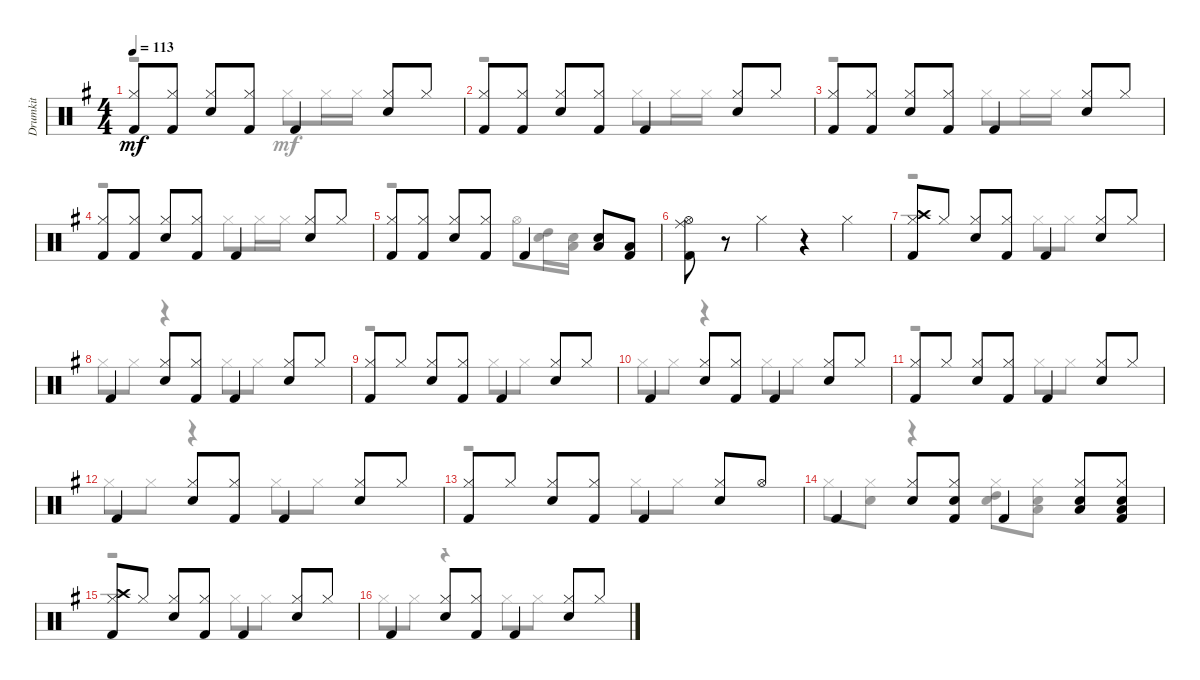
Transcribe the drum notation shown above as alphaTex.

\track ("Drumkit" "Drumkit") {instrument percussion}
\staff {score}
\articulation defaults
\voice
\ts (4 4)
\tempo 113
\clef neutral
\ks eminor
("Kick (hit) 2" "Hi-Hat (closed)").8{dy mf} ("Hi-Hat (closed)" "Kick (hit) 2").8 ("Hi-Hat (closed)" "Snare (hit) 2").8 ("Hi-Hat (closed)" "Kick (hit) 2").8 "Kick (hit) 2".4 ("Hi-Hat (closed)" "Snare (hit) 2").8 "Hi-Hat (closed)".8 |
("Hi-Hat (closed)" "Kick (hit) 2").8 ("Kick (hit) 2" "Hi-Hat (closed)").8 ("Snare (hit) 2" "Hi-Hat (closed)").8 ("Kick (hit) 2" "Hi-Hat (closed)").8 "Kick (hit) 2".4 ("Snare (hit) 2" "Hi-Hat (closed)").8 "Hi-Hat (closed)".8 |
("Kick (hit) 2" "Hi-Hat (closed)").8 ("Kick (hit) 2" "Hi-Hat (closed)").8 ("Snare (hit) 2" "Hi-Hat (closed)").8 ("Kick (hit) 2" "Hi-Hat (closed)").8 "Kick (hit) 2".4 ("Snare (hit) 2" "Hi-Hat (closed)").8 "Hi-Hat (closed)".8 |
("Hi-Hat (closed)" "Kick (hit) 2").8 ("Kick (hit) 2" "Hi-Hat (closed)").8 ("Hi-Hat (closed)" "Snare (hit) 2").8 ("Kick (hit) 2" "Hi-Hat (closed)").8 "Kick (hit) 2".4 ("Snare (hit) 2" "Hi-Hat (closed)").8 "Hi-Hat (closed)".8 |
("Hi-Hat (closed)" "Kick (hit) 2").8 ("Kick (hit) 2" "Hi-Hat (closed)").8 ("Hi-Hat (closed)" "Snare (hit) 2").8 ("Kick (hit) 2" "Hi-Hat (closed)").8 "Kick (hit) 2".4 ("Low Floor Tom (hit)" "Snare (hit) 2").8 ("Kick (hit) 2" "Low Tom (hit)").8 |
("Ride (middle)" "Kick (hit) 2" "Hi-Hat (open)").8 r.8 "Hi-Hat (closed)".4 r.4 "Hi-Hat (closed)".4 |
("Kick (hit) 2" "Hi-Hat (closed)" "Crash high (hit)").8 "Hi-Hat (closed)".8 ("Snare (hit) 2" "Hi-Hat (closed)").8 ("Hi-Hat (closed)" "Kick (hit) 2").8 "Kick (hit) 2".4 ("Hi-Hat (closed)" "Snare (hit) 2").8 "Hi-Hat (closed)".8 |
"Kick (hit) 2".4 ("Snare (hit) 2" "Hi-Hat (closed)").8 ("Hi-Hat (closed)" "Kick (hit) 2").8 "Kick (hit) 2".4 ("Snare (hit) 2" "Hi-Hat (closed)").8 "Hi-Hat (closed)".8 |
("Kick (hit) 2" "Hi-Hat (closed)").8 "Hi-Hat (closed)".8 ("Hi-Hat (closed)" "Snare (hit) 2").8 ("Kick (hit) 2" "Hi-Hat (closed)").8 "Kick (hit) 2".4 ("Snare (hit) 2" "Hi-Hat (closed)").8 "Hi-Hat (closed)".8 |
"Kick (hit) 2".4 ("Snare (hit) 2" "Hi-Hat (closed)").8 ("Hi-Hat (closed)" "Kick (hit) 2").8 "Kick (hit) 2".4 ("Snare (hit) 2" "Hi-Hat (closed)").8 "Hi-Hat (closed)".8 |
("Hi-Hat (closed)" "Kick (hit) 2").8 "Hi-Hat (closed)".8 ("Hi-Hat (closed)" "Snare (hit) 2").8 ("Kick (hit) 2" "Hi-Hat (closed)").8 "Kick (hit) 2".4 ("Snare (hit) 2" "Hi-Hat (closed)").8 "Hi-Hat (closed)".8 |
"Kick (hit) 2".4 ("Snare (hit) 2" "Hi-Hat (closed)").8 ("Hi-Hat (closed)" "Kick (hit) 2").8 "Kick (hit) 2".4 ("Snare (hit) 2" "Hi-Hat (closed)").8 "Hi-Hat (closed)".8 |
("Kick (hit) 2" "Hi-Hat (closed)").8 "Hi-Hat (closed)".8 ("Snare (hit) 2" "Hi-Hat (closed)").8 ("Kick (hit) 2" "Hi-Hat (closed)").8 "Kick (hit) 2".4 ("Snare (hit) 2" "Hi-Hat (closed)").8 "Hi-Hat (open)".8 |
"Kick (hit) 2".4 ("Hi-Hat (closed)" "Snare (hit) 2").8 ("Snare (hit) 2" "Kick (hit) 2" "Hi-Hat (closed)").8 "Kick (hit) 2".4 ("Low Tom (hit)" "Snare (hit) 2" "Hi-Hat (closed)").8 ("Low Floor Tom (hit)" "Hi-Hat (closed)" "Snare (hit) 2" "Kick (hit) 2").8 |
("Kick (hit) 2" "Hi-Hat (closed)" "Crash high (hit)").8 "Hi-Hat (closed)".8 ("Snare (hit) 2" "Hi-Hat (closed)").8 ("Kick (hit) 2" "Hi-Hat (closed)").8 "Kick (hit) 2".4 ("Hi-Hat (closed)" "Snare (hit) 2").8 "Hi-Hat (closed)".8 |
"Kick (hit) 2".4 ("Hi-Hat (closed)" "Snare (hit) 2").8 ("Hi-Hat (closed)" "Kick (hit) 2").8 "Kick (hit) 2".4 ("Snare (hit) 2" "Hi-Hat (closed)").8 "Hi-Hat (closed)".8
\voice
\clef neutral
\ottava regular
\simile none
\ks eminor
r.2{dy mf} "Hi-Hat (closed)".8 "Hi-Hat (closed)".16 "Hi-Hat (closed)".16 |
r.2 "Hi-Hat (closed)".8 "Hi-Hat (closed)".16 "Hi-Hat (closed)".16 |
r.2 "Hi-Hat (closed)".8 "Hi-Hat (closed)".16 "Hi-Hat (closed)".16 |
r.2 "Hi-Hat (closed)".8 "Hi-Hat (closed)".16 "Hi-Hat (closed)".16 |
r.2 "Hi-Hat (open)".8 ("Snare (hit) 2" "High Tom (hit)").16 ("Snare (hit) 2" "Low Tom (hit)").16 |
|
r.2 "Hi-Hat (closed)".8 "Hi-Hat (closed)".8 |
"Hi-Hat (closed)".8 "Hi-Hat (closed)".8 r.4 "Hi-Hat (closed)".8 "Hi-Hat (closed)".8 |
r.2 "Hi-Hat (closed)".8 "Hi-Hat (closed)".8 |
"Hi-Hat (closed)".8 "Hi-Hat (closed)".8 r.4 "Hi-Hat (closed)".8 "Hi-Hat (closed)".8 |
r.2 "Hi-Hat (closed)".8 "Hi-Hat (closed)".8 |
"Hi-Hat (closed)".8 "Hi-Hat (closed)".8 r.4 "Hi-Hat (closed)".8 "Hi-Hat (closed)".8 |
r.2 "Hi-Hat (closed)".8 "Hi-Hat (closed)".8 |
"Hi-Hat (closed)".8 ("Snare (hit) 2" "Hi-Hat (closed)").8 r.4 ("Snare (hit) 2" "Hi-Hat (closed)" "High Tom (hit)").8 ("Snare (hit) 2" "Hi-Hat (closed)" "Low Tom (hit)").8 |
r.2 "Hi-Hat (closed)".8 "Hi-Hat (closed)".8 |
"Hi-Hat (closed)".8 "Hi-Hat (closed)".8 r.4 "Hi-Hat (closed)".8 "Hi-Hat (closed)".8
